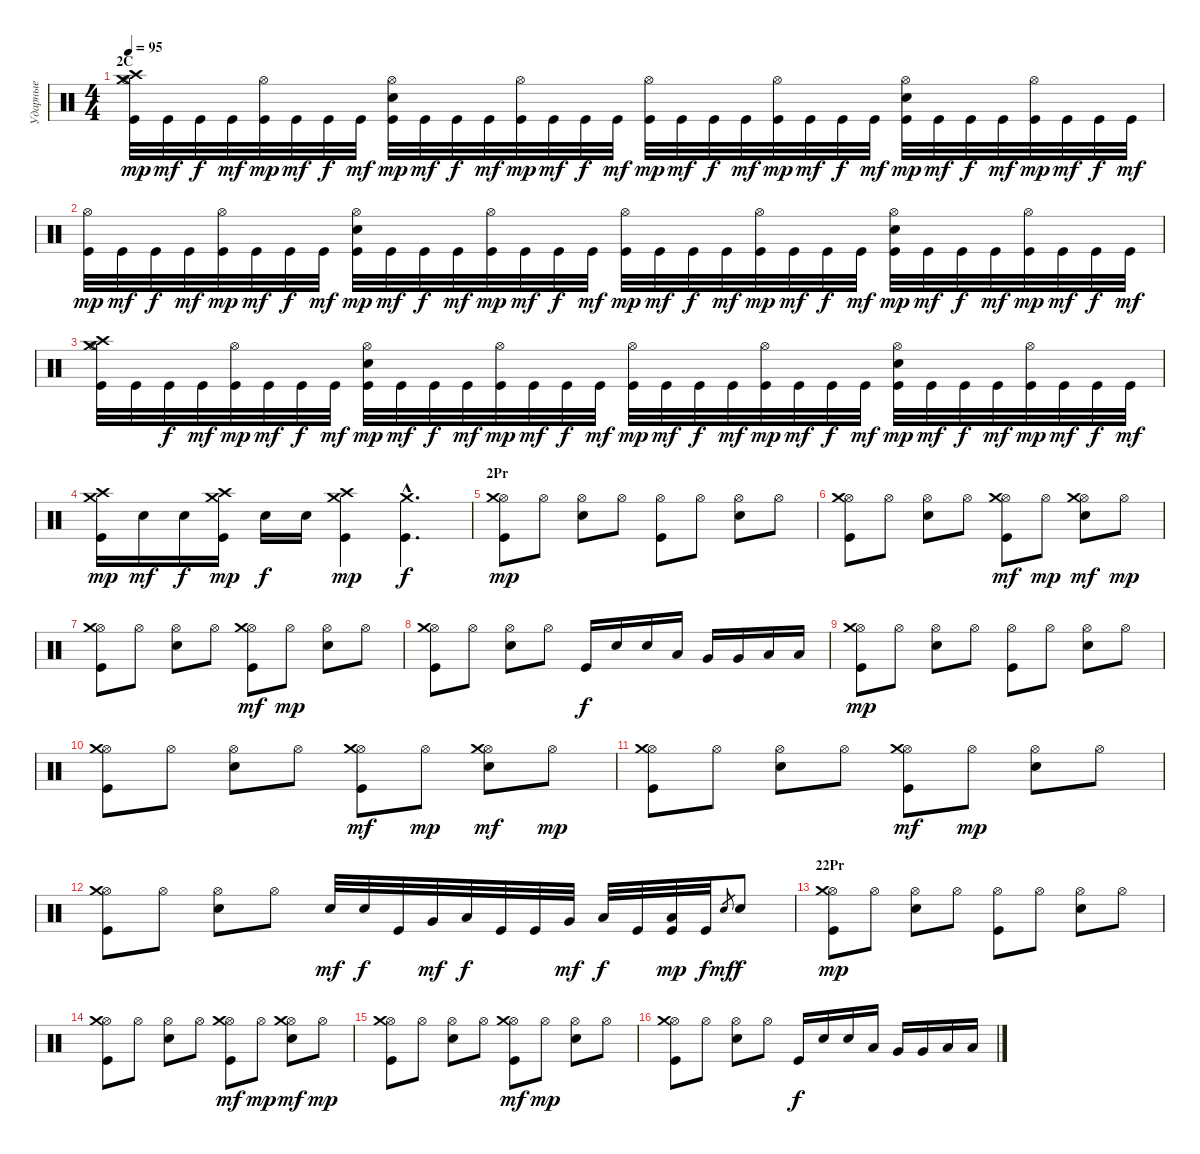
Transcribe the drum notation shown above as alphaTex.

\track ("Ударные" "Ударные") {instrument percussion}
\staff {score}
\articulation defaults
\ts (4 4)
\section ("" "2C")
\tempo 95
\clef neutral
\ks c
("Hi-Hat (open)" "Crash medium (hit)" "Crash high (hit)" "Kick (hit)").32{dy mp} "Kick (hit)".32{dy mf} "Kick (hit)".32{dy f} "Kick (hit)".32{dy mf} ("Hi-Hat (open)" "Kick (hit)").32{dy mp} "Kick (hit)".32{dy mf} "Kick (hit)".32{dy f} "Kick (hit)".32{dy mf} ("Hi-Hat (open)" "Snare (hit) 2" "Kick (hit)").32{dy mp} "Kick (hit)".32{dy mf} "Kick (hit)".32{dy f} "Kick (hit)".32{dy mf} ("Hi-Hat (open)" "Kick (hit)").32{dy mp} "Kick (hit)".32{dy mf} "Kick (hit)".32{dy f} "Kick (hit)".32{dy mf} ("Hi-Hat (open)" "Kick (hit)").32{dy mp} "Kick (hit)".32{dy mf} "Kick (hit)".32{dy f} "Kick (hit)".32{dy mf} ("Hi-Hat (open)" "Kick (hit)").32{dy mp} "Kick (hit)".32{dy mf} "Kick (hit)".32{dy f} "Kick (hit)".32{dy mf} ("Hi-Hat (open)" "Snare (hit) 2" "Kick (hit)").32{dy mp} "Kick (hit)".32{dy mf} "Kick (hit)".32{dy f} "Kick (hit)".32{dy mf} ("Hi-Hat (open)" "Kick (hit)").32{dy mp} "Kick (hit)".32{dy mf} "Kick (hit)".32{dy f} "Kick (hit)".32{dy mf} |
("Hi-Hat (open)" "Kick (hit)").32{dy mp} "Kick (hit)".32{dy mf} "Kick (hit)".32{dy f} "Kick (hit)".32{dy mf} ("Hi-Hat (open)" "Kick (hit)").32{dy mp} "Kick (hit)".32{dy mf} "Kick (hit)".32{dy f} "Kick (hit)".32{dy mf} ("Hi-Hat (open)" "Snare (hit) 2" "Kick (hit)").32{dy mp} "Kick (hit)".32{dy mf} "Kick (hit)".32{dy f} "Kick (hit)".32{dy mf} ("Hi-Hat (open)" "Kick (hit)").32{dy mp} "Kick (hit)".32{dy mf} "Kick (hit)".32{dy f} "Kick (hit)".32{dy mf} ("Hi-Hat (open)" "Kick (hit)").32{dy mp} "Kick (hit)".32{dy mf} "Kick (hit)".32{dy f} "Kick (hit)".32{dy mf} ("Hi-Hat (open)" "Kick (hit)").32{dy mp} "Kick (hit)".32{dy mf} "Kick (hit)".32{dy f} "Kick (hit)".32{dy mf} ("Hi-Hat (open)" "Snare (hit) 2" "Kick (hit)").32{dy mp} "Kick (hit)".32{dy mf} "Kick (hit)".32{dy f} "Kick (hit)".32{dy mf} ("Hi-Hat (open)" "Kick (hit)").32{dy mp} "Kick (hit)".32{dy mf} "Kick (hit)".32{dy f} "Kick (hit)".32{dy mf} |
("Hi-Hat (open)" "Crash medium (hit)" "Crash high (hit)" "Kick (hit)").32 "Kick (hit)".32 "Kick (hit)".32{dy f} "Kick (hit)".32{dy mf} ("Hi-Hat (open)" "Kick (hit)").32{dy mp} "Kick (hit)".32{dy mf} "Kick (hit)".32{dy f} "Kick (hit)".32{dy mf} ("Hi-Hat (open)" "Snare (hit) 2" "Kick (hit)").32{dy mp} "Kick (hit)".32{dy mf} "Kick (hit)".32{dy f} "Kick (hit)".32{dy mf} ("Hi-Hat (open)" "Kick (hit)").32{dy mp} "Kick (hit)".32{dy mf} "Kick (hit)".32{dy f} "Kick (hit)".32{dy mf} ("Hi-Hat (open)" "Kick (hit)").32{dy mp} "Kick (hit)".32{dy mf} "Kick (hit)".32{dy f} "Kick (hit)".32{dy mf} ("Hi-Hat (open)" "Kick (hit)").32{dy mp} "Kick (hit)".32{dy mf} "Kick (hit)".32{dy f} "Kick (hit)".32{dy mf} ("Hi-Hat (open)" "Snare (hit) 2" "Kick (hit)").32{dy mp} "Kick (hit)".32{dy mf} "Kick (hit)".32{dy f} "Kick (hit)".32{dy mf} ("Hi-Hat (open)" "Kick (hit)").32{dy mp} "Kick (hit)".32{dy mf} "Kick (hit)".32{dy f} "Kick (hit)".32{dy mf} |
("Crash medium (hit)" "Crash high (hit)" "Kick (hit)").16{dy mp} "Snare (hit) 2".16{dy mf} "Snare (hit) 2".16{dy f} ("Crash medium (hit)" "Crash high (hit)" "Kick (hit)").16{dy mp} "Snare (hit) 2".16{dy f} "Snare (hit) 2".16 ("Crash medium (hit)" "Crash high (hit)" "Kick (hit)").4{dy mp} ("Crash medium (hit)"{hac} "Kick (hit)"{hac}).4{d dy f} |
\section ("" "2Pr")
("Hi-Hat (open)" "Crash medium (hit)" "Kick (hit)").8{dy mp} "Hi-Hat (open)".8 ("Hi-Hat (open)" "Snare (hit) 2").8 "Hi-Hat (open)".8 ("Hi-Hat (open)" "Kick (hit)").8 "Hi-Hat (open)".8 ("Hi-Hat (open)" "Snare (hit) 2").8 "Hi-Hat (open)".8 |
("Hi-Hat (open)" "Crash medium (hit)" "Kick (hit)").8 "Hi-Hat (open)".8 ("Hi-Hat (open)" "Snare (hit) 2").8 "Hi-Hat (open)".8 ("Hi-Hat (open)" "Crash medium (hit)" "Kick (hit)").8{dy mf} "Hi-Hat (open)".8{dy mp} ("Hi-Hat (open)" "Crash medium (hit)" "Snare (hit) 2").8{dy mf} "Hi-Hat (open)".8{dy mp} |
("Hi-Hat (open)" "Crash medium (hit)" "Kick (hit)").8 "Hi-Hat (open)".8 ("Hi-Hat (open)" "Snare (hit) 2").8 "Hi-Hat (open)".8 ("Hi-Hat (open)" "Crash medium (hit)" "Kick (hit)").8{dy mf} "Hi-Hat (open)".8{dy mp} ("Hi-Hat (open)" "Snare (hit) 2").8 "Hi-Hat (open)".8 |
("Hi-Hat (open)" "Crash medium (hit)" "Kick (hit)").8 "Hi-Hat (open)".8 ("Hi-Hat (open)" "Snare (hit) 2").8 "Hi-Hat (open)".8 "Kick (hit)".16{dy f} "Snare (hit) 2".16 "Snare (hit) 2".16 "Low Tom (hit)".16 "Very Low Tom (hit)".16 "Very Low Tom (hit)".16 "Low Floor Tom (hit)".16 "Low Floor Tom (hit)".16 |
("Hi-Hat (open)" "Crash medium (hit)" "Kick (hit)").8{dy mp} "Hi-Hat (open)".8 ("Hi-Hat (open)" "Snare (hit) 2").8 "Hi-Hat (open)".8 ("Hi-Hat (open)" "Kick (hit)").8 "Hi-Hat (open)".8 ("Hi-Hat (open)" "Snare (hit) 2").8 "Hi-Hat (open)".8 |
("Hi-Hat (open)" "Crash medium (hit)" "Kick (hit)").8 "Hi-Hat (open)".8 ("Hi-Hat (open)" "Snare (hit) 2").8 "Hi-Hat (open)".8 ("Hi-Hat (open)" "Crash medium (hit)" "Kick (hit)").8{dy mf} "Hi-Hat (open)".8{dy mp} ("Hi-Hat (open)" "Crash medium (hit)" "Snare (hit) 2").8{dy mf} "Hi-Hat (open)".8{dy mp} |
("Hi-Hat (open)" "Crash medium (hit)" "Kick (hit)").8 "Hi-Hat (open)".8 ("Hi-Hat (open)" "Snare (hit) 2").8 "Hi-Hat (open)".8 ("Hi-Hat (open)" "Crash medium (hit)" "Kick (hit)").8{dy mf} "Hi-Hat (open)".8{dy mp} ("Hi-Hat (open)" "Snare (hit) 2").8 "Hi-Hat (open)".8 |
("Hi-Hat (open)" "Crash medium (hit)" "Kick (hit)").8 "Hi-Hat (open)".8 ("Hi-Hat (open)" "Snare (hit) 2").8 "Hi-Hat (open)".8 "Snare (hit) 2".32{dy mf} "Snare (hit) 2".32{dy f} "Kick (hit)".32 "Very Low Tom (hit)".32{dy mf} "Low Floor Tom (hit)".32{dy f} "Kick (hit)".32 "Kick (hit)".32 "Very Low Tom (hit)".32{dy mf} "Low Floor Tom (hit)".32{dy f} "Kick (hit)".32 ("Low Floor Tom (hit)" "Kick (hit)").32{dy mp} "Kick (hit)".32{dy f} "Snare (hit) 2".8{gr dy mf} "Snare (hit) 2".8{dy f} |
\section ("" "22Pr")
("Hi-Hat (open)" "Crash medium (hit)" "Kick (hit)").8{dy mp} "Hi-Hat (open)".8 ("Hi-Hat (open)" "Snare (hit) 2").8 "Hi-Hat (open)".8 ("Hi-Hat (open)" "Kick (hit)").8 "Hi-Hat (open)".8 ("Hi-Hat (open)" "Snare (hit) 2").8 "Hi-Hat (open)".8 |
("Hi-Hat (open)" "Crash medium (hit)" "Kick (hit)").8 "Hi-Hat (open)".8 ("Hi-Hat (open)" "Snare (hit) 2").8 "Hi-Hat (open)".8 ("Hi-Hat (open)" "Crash medium (hit)" "Kick (hit)").8{dy mf} "Hi-Hat (open)".8{dy mp} ("Hi-Hat (open)" "Crash medium (hit)" "Snare (hit) 2").8{dy mf} "Hi-Hat (open)".8{dy mp} |
("Hi-Hat (open)" "Crash medium (hit)" "Kick (hit)").8 "Hi-Hat (open)".8 ("Hi-Hat (open)" "Snare (hit) 2").8 "Hi-Hat (open)".8 ("Hi-Hat (open)" "Crash medium (hit)" "Kick (hit)").8{dy mf} "Hi-Hat (open)".8{dy mp} ("Hi-Hat (open)" "Snare (hit) 2").8 "Hi-Hat (open)".8 |
("Hi-Hat (open)" "Crash medium (hit)" "Kick (hit)").8 "Hi-Hat (open)".8 ("Hi-Hat (open)" "Snare (hit) 2").8 "Hi-Hat (open)".8 "Kick (hit)".16{dy f} "Snare (hit) 2".16 "Snare (hit) 2".16 "Low Tom (hit)".16 "Very Low Tom (hit)".16 "Very Low Tom (hit)".16 "Low Floor Tom (hit)".16 "Low Floor Tom (hit)".16
